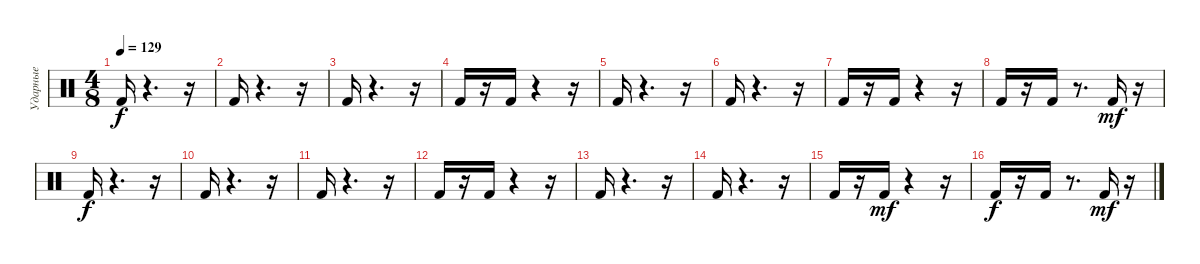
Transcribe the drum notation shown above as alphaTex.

\track ("Ударные" "Ударные") {instrument percussion}
\staff {score}
\articulation defaults
\ts (4 8)
\tempo 129
\clef neutral
\ks c "Kick (hit) 2".16{dy f}
r.4{d} r.16 |
"Kick (hit) 2".16 r.4{d} r.16 |
"Kick (hit) 2".16 r.4{d} r.16 |
"Kick (hit) 2".16 r.16 "Kick (hit) 2".16 r.4 r.16 |
"Kick (hit) 2".16 r.4{d} r.16 |
"Kick (hit) 2".16 r.4{d} r.16 |
"Kick (hit) 2".16 r.16 "Kick (hit) 2".16 r.4 r.16 |
"Kick (hit) 2".16 r.16 "Kick (hit) 2".16 r.8{d} "Kick (hit) 2".16{dy mf} r.16 |
"Kick (hit) 2".16{dy f} r.4{d} r.16 |
"Kick (hit) 2".16 r.4{d} r.16 |
"Kick (hit) 2".16 r.4{d} r.16 |
"Kick (hit) 2".16 r.16 "Kick (hit) 2".16 r.4 r.16 |
"Kick (hit) 2".16 r.4{d} r.16 |
"Kick (hit) 2".16 r.4{d} r.16 |
"Kick (hit) 2".16 r.16 "Kick (hit) 2".16{dy mf} r.4 r.16 |
"Kick (hit) 2".16{dy f} r.16 "Kick (hit) 2".16 r.8{d} "Kick (hit) 2".16{dy mf} r.16
